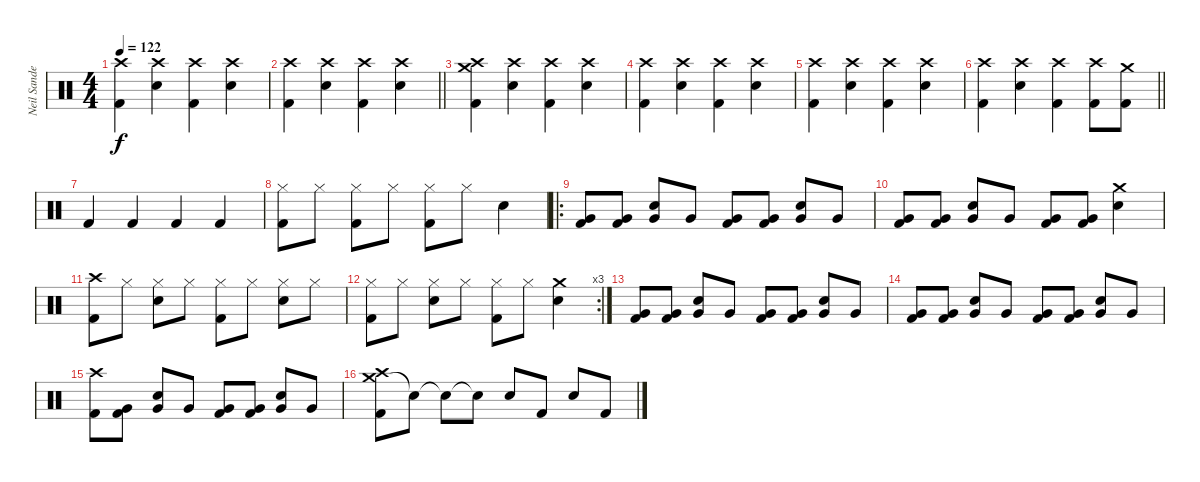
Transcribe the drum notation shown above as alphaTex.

\track ("Neil Sanderson-Drums" "Neil Sande") {instrument percussion}
\staff {score}
\articulation defaults
\ts (4 4)
\tempo 122
\clef neutral
\ks c
("Crash high (hit)" "Kick (hit) 2").4{dy f} ("Crash high (hit)" "Snare (hit) 2").4 ("Crash high (hit)" "Kick (hit) 2").4 ("Crash high (hit)" "Snare (hit) 2").4 |
\barLineRight lightlight
("Crash high (hit)" "Kick (hit) 2").4 ("Crash high (hit)" "Snare (hit) 2").4 ("Crash high (hit)" "Kick (hit) 2").4 ("Crash high (hit)" "Snare (hit) 2").4 |
("Crash high (hit)" "Crash medium (hit)" "Kick (hit) 2").4 ("Crash high (hit)" "Snare (hit) 2").4 ("Crash high (hit)" "Kick (hit) 2").4 ("Crash high (hit)" "Snare (hit) 2").4 |
("Crash high (hit)" "Kick (hit) 2").4 ("Crash high (hit)" "Snare (hit) 2").4 ("Crash high (hit)" "Kick (hit) 2").4 ("Crash high (hit)" "Snare (hit) 2").4 |
("Crash high (hit)" "Kick (hit) 2").4 ("Crash high (hit)" "Snare (hit) 2").4 ("Crash high (hit)" "Kick (hit) 2").4 ("Crash high (hit)" "Snare (hit) 2").4 |
\barLineRight lightlight
("Crash high (hit)" "Kick (hit) 2").4 ("Crash high (hit)" "Snare (hit) 2").4 ("Crash high (hit)" "Kick (hit) 2").4 ("Crash high (hit)" "Kick (hit) 2").8 ("Crash medium (hit)" "Kick (hit) 2").8 |
"Kick (hit) 2".4 "Kick (hit) 2".4 "Kick (hit) 2".4 "Kick (hit) 2".4 |
("Hi-Hat (closed)" "Kick (hit) 2").8 "Hi-Hat (closed)".8 ("Hi-Hat (closed)" "Kick (hit) 2").8 "Hi-Hat (closed)".8 ("Hi-Hat (closed)" "Kick (hit) 2").8 "Hi-Hat (closed)".8 "Snare (hit) 2".4 |
\ro
("Very Low Tom (hit)" "Kick (hit) 2").8 ("Very Low Tom (hit)" "Kick (hit) 2").8 ("Very Low Tom (hit)" "Snare (hit) 2").8 "Very Low Tom (hit)".8 ("Very Low Tom (hit)" "Kick (hit) 2").8 ("Very Low Tom (hit)" "Kick (hit) 2").8 ("Very Low Tom (hit)" "Snare (hit) 2").8 "Very Low Tom (hit)".8 |
("Very Low Tom (hit)" "Kick (hit) 2").8 ("Very Low Tom (hit)" "Kick (hit) 2").8 ("Very Low Tom (hit)" "Snare (hit) 2").8 "Very Low Tom (hit)".8 ("Very Low Tom (hit)" "Kick (hit) 2").8 ("Very Low Tom (hit)" "Kick (hit) 2").8 ("Crash medium (hit)" "Snare (hit) 2").4 |
("Crash high (hit)" "Kick (hit) 2").8 "Hi-Hat (closed)".8 ("Hi-Hat (closed)" "Snare (hit) 2").8 "Hi-Hat (closed)".8 ("Hi-Hat (closed)" "Kick (hit) 2").8 "Hi-Hat (closed)".8 ("Hi-Hat (closed)" "Snare (hit) 2").8 "Hi-Hat (closed)".8 |
\rc 3
("Hi-Hat (closed)" "Kick (hit) 2").8 "Hi-Hat (closed)".8 ("Hi-Hat (closed)" "Snare (hit) 2").8 "Hi-Hat (closed)".8 ("Hi-Hat (closed)" "Kick (hit) 2").8 "Hi-Hat (closed)".8 ("Crash medium (hit)" "Snare (hit) 2").4 |
("Very Low Tom (hit)" "Kick (hit) 2").8 ("Very Low Tom (hit)" "Kick (hit) 2").8 ("Very Low Tom (hit)" "Snare (hit) 2").8 "Very Low Tom (hit)".8 ("Very Low Tom (hit)" "Kick (hit) 2").8 ("Very Low Tom (hit)" "Kick (hit) 2").8 ("Very Low Tom (hit)" "Snare (hit) 2").8 "Very Low Tom (hit)".8 |
("Very Low Tom (hit)" "Kick (hit) 2").8 ("Very Low Tom (hit)" "Kick (hit) 2").8 ("Very Low Tom (hit)" "Snare (hit) 2").8 "Very Low Tom (hit)".8 ("Very Low Tom (hit)" "Kick (hit) 2").8 ("Very Low Tom (hit)" "Kick (hit) 2").8 ("Very Low Tom (hit)" "Snare (hit) 2").8 "Very Low Tom (hit)".8 |
("Crash high (hit)" "Kick (hit) 2").8 ("Very Low Tom (hit)" "Kick (hit) 2").8 ("Very Low Tom (hit)" "Snare (hit) 2").8 "Very Low Tom (hit)".8 ("Very Low Tom (hit)" "Kick (hit) 2").8 ("Very Low Tom (hit)" "Kick (hit) 2").8 ("Very Low Tom (hit)" "Snare (hit) 2").8 "Very Low Tom (hit)".8 |
("Crash medium (hit)" "Crash high (hit)" "Kick (hit) 2").8 "Snare (hit)"{t}.8 "Snare (hit)"{t}.8 "Snare (hit)"{t}.8 "Snare (hit) 2".8 "Kick (hit) 2".8 "Snare (hit) 2".8 "Kick (hit) 2".8
